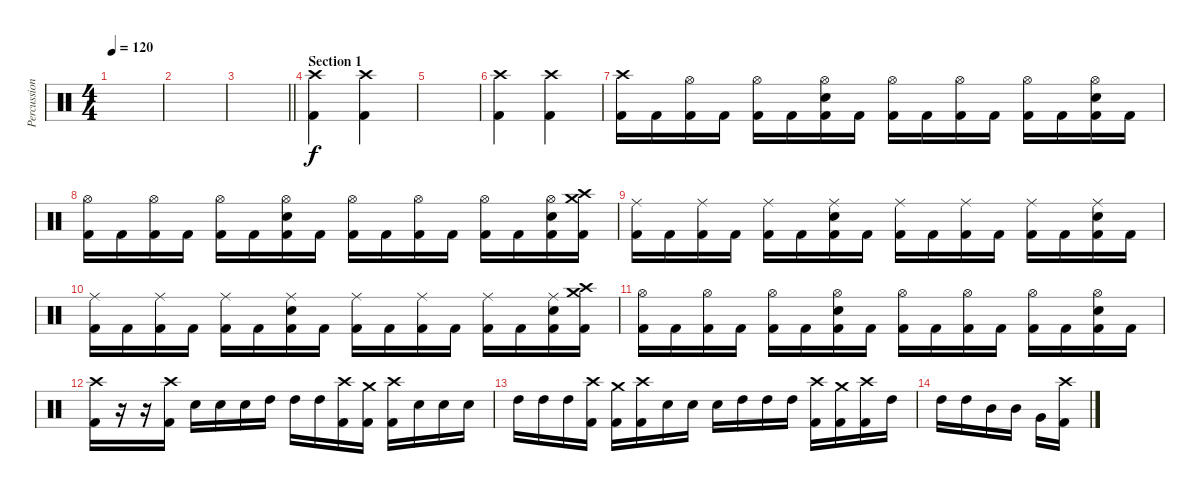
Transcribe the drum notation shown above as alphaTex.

\track ("Percussion" "Percussion") {instrument percussion}
\staff {score}
\articulation defaults
\ts (4 4)
\tempo 120
\clef neutral
\ks c
|
|
\barLineRight lightlight
|
\section ("" "Section 1")
("Crash high (hit)" "Kick (hit) 2").4 ("Crash high (hit)" "Kick (hit) 2").4 |
|
("Crash high (hit)" "Kick (hit) 2").4 ("Crash high (hit)" "Kick (hit) 2").4 |
("Crash high (hit)" "Kick (hit) 2").16 "Kick (hit) 2".16 ("Hi-Hat (open)" "Kick (hit) 2").16 "Kick (hit) 2".16 ("Hi-Hat (open)" "Kick (hit) 2").16 "Kick (hit) 2".16 ("Hi-Hat (open)" "Snare (hit) 2" "Kick (hit) 2").16 "Kick (hit) 2".16 ("Hi-Hat (open)" "Kick (hit) 2").16 "Kick (hit) 2".16 ("Hi-Hat (open)" "Kick (hit) 2").16 "Kick (hit) 2".16 ("Hi-Hat (open)" "Kick (hit) 2").16 "Kick (hit) 2".16 ("Hi-Hat (open)" "Snare (hit) 2" "Kick (hit) 2").16 "Kick (hit) 2".16 |
("Hi-Hat (open)" "Kick (hit) 2").16 "Kick (hit) 2".16 ("Hi-Hat (open)" "Kick (hit) 2").16 "Kick (hit) 2".16 ("Hi-Hat (open)" "Kick (hit) 2").16 "Kick (hit) 2".16 ("Hi-Hat (open)" "Snare (hit) 2" "Kick (hit) 2").16 "Kick (hit) 2".16 ("Hi-Hat (open)" "Kick (hit) 2").16 "Kick (hit) 2".16 ("Hi-Hat (open)" "Kick (hit) 2").16 "Kick (hit) 2".16 ("Hi-Hat (open)" "Kick (hit) 2").16 "Kick (hit) 2".16 ("Hi-Hat (open)" "Snare (hit) 2" "Kick (hit) 2").16 ("Crash medium (hit)" "Crash high (hit)" "Kick (hit) 2").16 |
("Ride (middle)" "Kick (hit) 2").16 "Kick (hit) 2".16 ("Ride (middle)" "Kick (hit) 2").16 "Kick (hit) 2".16 ("Ride (middle)" "Kick (hit) 2").16 "Kick (hit) 2".16 ("Ride (middle)" "Snare (hit) 2" "Kick (hit) 2").16 "Kick (hit) 2".16 ("Ride (middle)" "Kick (hit) 2").16 "Kick (hit) 2".16 ("Ride (middle)" "Kick (hit) 2").16 "Kick (hit) 2".16 ("Ride (middle)" "Kick (hit) 2").16 "Kick (hit) 2".16 ("Ride (middle)" "Snare (hit) 2" "Kick (hit) 2").16 "Kick (hit) 2".16 |
("Ride (middle)" "Kick (hit) 2").16 "Kick (hit) 2".16 ("Ride (middle)" "Kick (hit) 2").16 "Kick (hit) 2".16 ("Ride (middle)" "Kick (hit) 2").16 "Kick (hit) 2".16 ("Ride (middle)" "Snare (hit) 2" "Kick (hit) 2").16 "Kick (hit) 2".16 ("Ride (middle)" "Kick (hit) 2").16 "Kick (hit) 2".16 ("Ride (middle)" "Kick (hit) 2").16 "Kick (hit) 2".16 ("Ride (middle)" "Kick (hit) 2").16 "Kick (hit) 2".16 ("Ride (middle)" "Snare (hit) 2" "Kick (hit) 2").16 ("Crash high (hit)" "Crash medium (hit)" "Kick (hit) 2").16 |
("Hi-Hat (open)" "Kick (hit) 2").16 "Kick (hit) 2".16 ("Hi-Hat (open)" "Kick (hit) 2").16 "Kick (hit) 2".16 ("Hi-Hat (open)" "Kick (hit) 2").16 "Kick (hit) 2".16 ("Hi-Hat (open)" "Snare (hit) 2" "Kick (hit) 2").16 "Kick (hit) 2".16 ("Hi-Hat (open)" "Kick (hit) 2").16 "Kick (hit) 2".16 ("Hi-Hat (open)" "Kick (hit) 2").16 "Kick (hit) 2".16 ("Hi-Hat (open)" "Kick (hit) 2").16 "Kick (hit) 2".16 ("Hi-Hat (open)" "Snare (hit) 2" "Kick (hit) 2").16 "Kick (hit) 2".16 |
("Crash high (hit)" "Kick (hit) 2").16 r.16 r.16 ("Crash high (hit)" "Kick (hit) 2").16 "Snare (hit) 2".16 "Snare (hit) 2".16 "Snare (hit) 2".16 "High Tom (hit)".16 "High Tom (hit)".16 "High Tom (hit)".16 ("Crash high (hit)" "Kick (hit) 2").16 ("Crash medium (hit)" "Kick (hit) 2").16 ("Crash high (hit)" "Kick (hit) 2").16 "Snare (hit) 2".16 "Snare (hit) 2".16 "Snare (hit) 2".16 |
"High Tom (hit)".16 "High Tom (hit)".16 "High Tom (hit)".16 ("Crash high (hit)" "Kick (hit) 2").16 ("Crash medium (hit)" "Kick (hit) 2").16 ("Crash high (hit)" "Kick (hit) 2").16 "Snare (hit) 2".16 "Snare (hit) 2".16 "Snare (hit) 2".16 "High Tom (hit)".16 "High Tom (hit)".16 "High Tom (hit)".16 ("Crash high (hit)" "Kick (hit) 2").16 ("Crash medium (hit)" "Kick (hit) 2").16 ("Crash high (hit)" "Kick (hit) 2").16 "High Tom (hit)".16 |
"High Tom (hit)".16 "High Tom (hit)".16 "Mid Tom (hit)".16 "Mid Tom (hit)".16 "Very Low Tom (hit)".16 ("Crash high (hit)" "Kick (hit) 2").16
